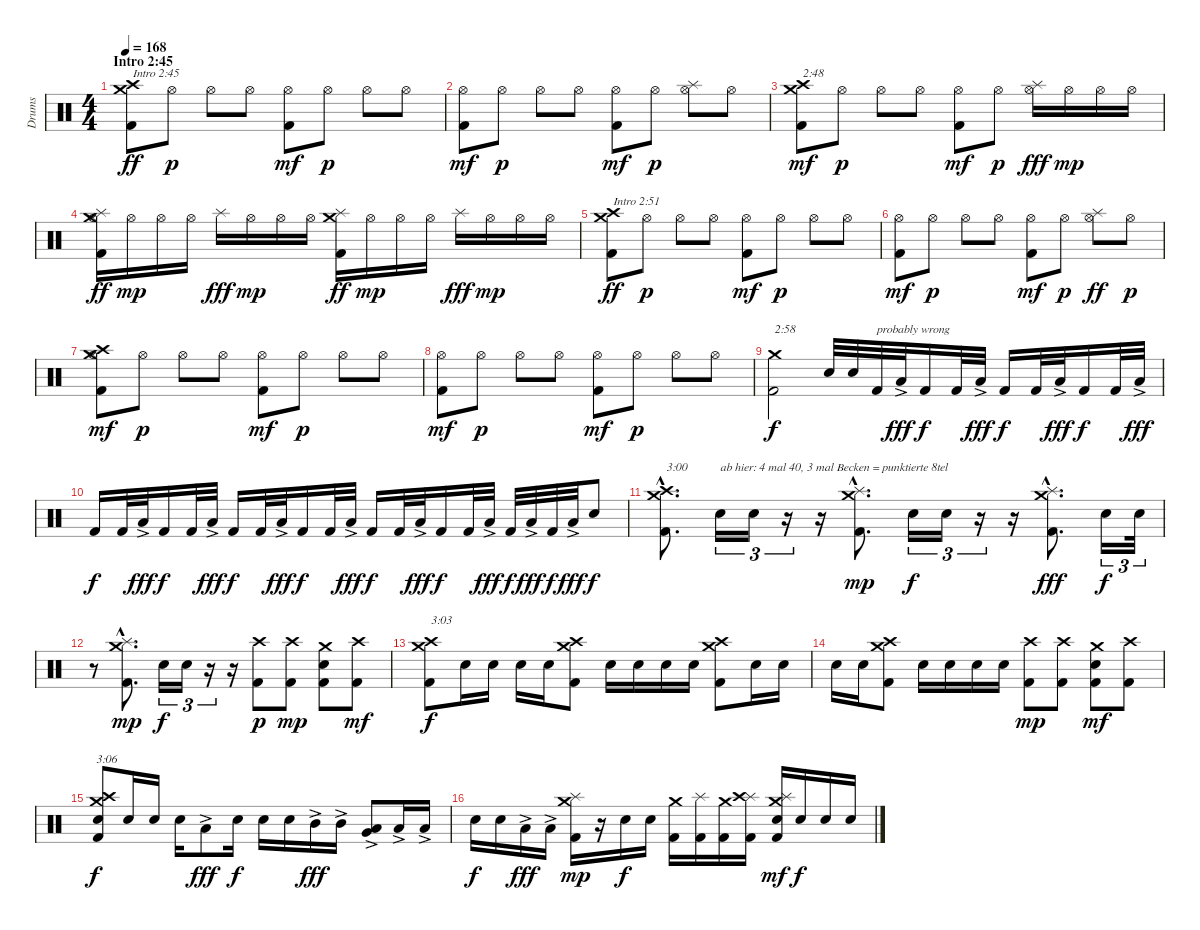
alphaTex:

\track ("Drums" "Drums") {instrument percussion}
\staff {score}
\articulation defaults
\ts (4 4)
\section ("" "Intro 2:45")
\tempo 168
\clef neutral
\ks c
("Kick (hit) 2" "Crash medium (hit)" "Crash high (hit)").8{txt "Intro 2:45" dy ff} "Hi-Hat (open)".8{dy p} "Hi-Hat (open)".8 "Hi-Hat (open)".8 ("Kick (hit) 2" "Hi-Hat (open)").8{dy mf} "Hi-Hat (open)".8{dy p} "Hi-Hat (open)".8 "Hi-Hat (open)".8 |
("Kick (hit) 2" "Hi-Hat (open)").8{dy mf} "Hi-Hat (open)".8{dy p} "Hi-Hat (open)".8 "Hi-Hat (open)".8 ("Kick (hit) 2" "Hi-Hat (open)").8{dy mf} "Hi-Hat (open)".8{dy p} ("Hi-Hat (open)" "Splash (hit)").8 "Hi-Hat (open)".8 |
("Kick (hit) 2" "Crash high (hit)" "Crash medium (hit)").8{txt "2:48" dy mf} "Hi-Hat (open)".8{dy p} "Hi-Hat (open)".8 "Hi-Hat (open)".8 ("Kick (hit) 2" "Hi-Hat (open)").8{dy mf} "Hi-Hat (open)".8{dy p} ("Hi-Hat (open)" "Splash (hit)").16{dy fff} "Hi-Hat (open)".16{dy mp} "Hi-Hat (open)".16 "Hi-Hat (open)".16 |
("Kick (hit) 2" "Hi-Hat (open)" "Splash (hit)" "Crash medium (hit)").16{dy ff} "Hi-Hat (open)".16{dy mp} "Hi-Hat (open)".16 "Hi-Hat (open)".16 "Splash (hit)".16{dy fff} "Hi-Hat (open)".16{dy mp} "Hi-Hat (open)".16 "Hi-Hat (open)".16 ("Kick (hit) 2" "Splash (hit)" "Crash medium (hit)").16{dy ff} "Hi-Hat (open)".16{dy mp} "Hi-Hat (open)".16 "Hi-Hat (open)".16 "Splash (hit)".16{dy fff} "Hi-Hat (open)".16{dy mp} "Hi-Hat (open)".16 "Hi-Hat (open)".16 |
("Kick (hit) 2" "Crash medium (hit)" "Crash high (hit)").8{txt "Intro 2:51" dy ff} "Hi-Hat (open)".8{dy p} "Hi-Hat (open)".8 "Hi-Hat (open)".8 ("Kick (hit) 2" "Hi-Hat (open)").8{dy mf} "Hi-Hat (open)".8{dy p} "Hi-Hat (open)".8 "Hi-Hat (open)".8 |
("Kick (hit) 2" "Hi-Hat (open)").8{dy mf} "Hi-Hat (open)".8{dy p} "Hi-Hat (open)".8 "Hi-Hat (open)".8 ("Kick (hit) 2" "Hi-Hat (open)").8{dy mf} "Hi-Hat (open)".8{dy p} ("Hi-Hat (open)" "Splash (hit)").8{dy ff} "Hi-Hat (open)".8{dy p} |
("Kick (hit) 2" "Hi-Hat (open)" "Crash medium (hit)" "Crash high (hit)").8{dy mf} "Hi-Hat (open)".8{dy p} "Hi-Hat (open)".8 "Hi-Hat (open)".8 ("Kick (hit) 2" "Hi-Hat (open)").8{dy mf} "Hi-Hat (open)".8{dy p} "Hi-Hat (open)".8 "Hi-Hat (open)".8 |
("Kick (hit) 2" "Hi-Hat (open)").8{dy mf} "Hi-Hat (open)".8{dy p} "Hi-Hat (open)".8 "Hi-Hat (open)".8 ("Kick (hit) 2" "Hi-Hat (open)").8{dy mf} "Hi-Hat (open)".8{dy p} "Hi-Hat (open)".8 "Hi-Hat (open)".8 |
("Kick (hit) 2" "Crash medium (hit)").2{txt "2:58" dy f} "Electric Snare (hit)".32 "Electric Snare (hit)".32 "Kick (hit) 2".32{txt "probably wrong"} "Low Tom (hit)"{ac}.32{dy fff} "Kick (hit) 2".16{dy f} "Kick (hit) 2".32 "Low Tom (hit)"{ac}.32{dy fff} "Kick (hit) 2".16{dy f} "Kick (hit) 2".32 "Low Tom (hit)"{ac}.32{dy fff} "Kick (hit) 2".16{dy f} "Kick (hit) 2".32 "Low Tom (hit)"{ac}.32{dy fff} |
"Kick (hit) 2".16{dy f} "Kick (hit) 2".32 "Low Tom (hit)"{ac}.32{dy fff} "Kick (hit) 2".16{dy f} "Kick (hit) 2".32 "Low Tom (hit)"{ac}.32{dy fff} "Kick (hit) 2".16{dy f} "Kick (hit) 2".32 "Low Tom (hit)"{ac}.32{dy fff} "Kick (hit) 2".16{dy f} "Kick (hit) 2".32 "Low Tom (hit)"{ac}.32{dy fff} "Kick (hit) 2".16{dy f} "Kick (hit) 2".32 "Low Tom (hit)"{ac}.32{dy fff} "Kick (hit) 2".16{dy f} "Kick (hit) 2".32 "Low Tom (hit)"{ac}.32{dy fff} "Kick (hit) 2".32{dy f} "Low Tom (hit)"{ac}.32{dy fff} "Kick (hit) 2".32{dy f} "Low Tom (hit)"{ac}.32{dy fff} "Electric Snare (hit)".8{dy f} |
("Kick (hit) 2"{hac} "Crash high (hit)"{hac} "Crash medium (hit)"{hac}).8{d txt "3:00"} "Electric Snare (hit)".16{tu (3 2) txt "ab hier: 4 mal 40, 3 mal Becken = punktierte 8tel"} "Electric Snare (hit)".16{tu (3 2)} r.16{tu (3 2)} r.16 ("Kick (hit) 2"{hac} "Splash (hit)"{hac} "Crash medium (hit)"{hac}).8{d dy mp} "Electric Snare (hit)".16{tu (3 2) dy f} "Electric Snare (hit)".16{tu (3 2)} r.16{tu (3 2)} r.16 ("Kick (hit) 2"{hac} "Splash (hit)"{hac} "Crash medium (hit)"{hac}).8{d dy fff} "Electric Snare (hit)".16{tu (3 2) dy f} "Electric Snare (hit)".32{tu (3 2)} |
r.8 ("Kick (hit) 2"{hac} "Splash (hit)"{hac} "Crash medium (hit)"{hac}).8{d dy mp} "Electric Snare (hit)".16{tu (3 2) dy f} "Electric Snare (hit)".16{tu (3 2)} r.16{tu (3 2)} r.16 ("Kick (hit) 2" "Crash high (hit)").8{dy p} ("Kick (hit) 2" "Crash high (hit)").8{dy mp} ("Kick (hit) 2" "Electric Snare (hit)" "Crash medium (hit)").8 ("Kick (hit) 2" "Crash high (hit)").8{dy mf} |
("Kick (hit) 2" "Crash high (hit)" "Crash medium (hit)").8{txt "3:03" dy f} "Electric Snare (hit)".16 "Electric Snare (hit)".16 "Electric Snare (hit)".16 "Electric Snare (hit)".16 ("Kick (hit) 2" "Crash high (hit)" "Crash medium (hit)").8 "Electric Snare (hit)".16 "Electric Snare (hit)".16 "Electric Snare (hit)".16 "Electric Snare (hit)".16 ("Kick (hit) 2" "Crash high (hit)" "Crash medium (hit)").8 "Electric Snare (hit)".16 "Electric Snare (hit)".16 |
"Electric Snare (hit)".16 "Electric Snare (hit)".16 ("Kick (hit) 2" "Crash high (hit)" "Crash medium (hit)").8 "Electric Snare (hit)".16 "Electric Snare (hit)".16 "Electric Snare (hit)".16 "Electric Snare (hit)".16 ("Kick (hit) 2" "Crash high (hit)").8{dy mp} ("Kick (hit) 2" "Crash high (hit)").8 ("Kick (hit) 2" "Electric Snare (hit)" "Crash medium (hit)").8{dy mf} ("Kick (hit) 2" "Crash high (hit)").8 |
("Kick (hit) 2" "Electric Snare (hit)" "Crash high (hit)" "Crash medium (hit)").8{txt "3:06" dy f} "Electric Snare (hit)".16 "Electric Snare (hit)".16 "Electric Snare (hit)".16 "Low Tom (hit)"{ac}.8{dy fff} "Electric Snare (hit)".16{dy f} "Electric Snare (hit)".16 "Electric Snare (hit)".16 "Mid Tom (hit)"{ac}.16{dy fff} "Mid Tom (hit)"{ac}.16 ("Low Tom (hit)"{ac} "Very Low Tom (hit)"{ac}).8 "Low Tom (hit)"{ac}.16 "Low Tom (hit)"{ac}.16 |
"Electric Snare (hit)".16{dy f} "Electric Snare (hit)".16 "Low Tom (hit)"{ac}.16{dy fff} "Low Tom (hit)"{ac}.16 ("Kick (hit) 2" "Splash (hit)" "Crash medium (hit)").16{dy mp} r.16 "Electric Snare (hit)".16{dy f} "Electric Snare (hit)".16 ("Kick (hit) 2" "Crash medium (hit)").16 ("Kick (hit) 2" "Splash (hit)").16 ("Kick (hit) 2" "Crash medium (hit)").16 ("Kick (hit) 2" "Splash (hit)" "Crash high (hit)").16 ("Kick (hit) 2" "Electric Snare (hit)" "Splash (hit)" "Crash medium (hit)").16{dy mf} "Electric Snare (hit)".16{dy f} "Electric Snare (hit)".16 "Electric Snare (hit)".16
